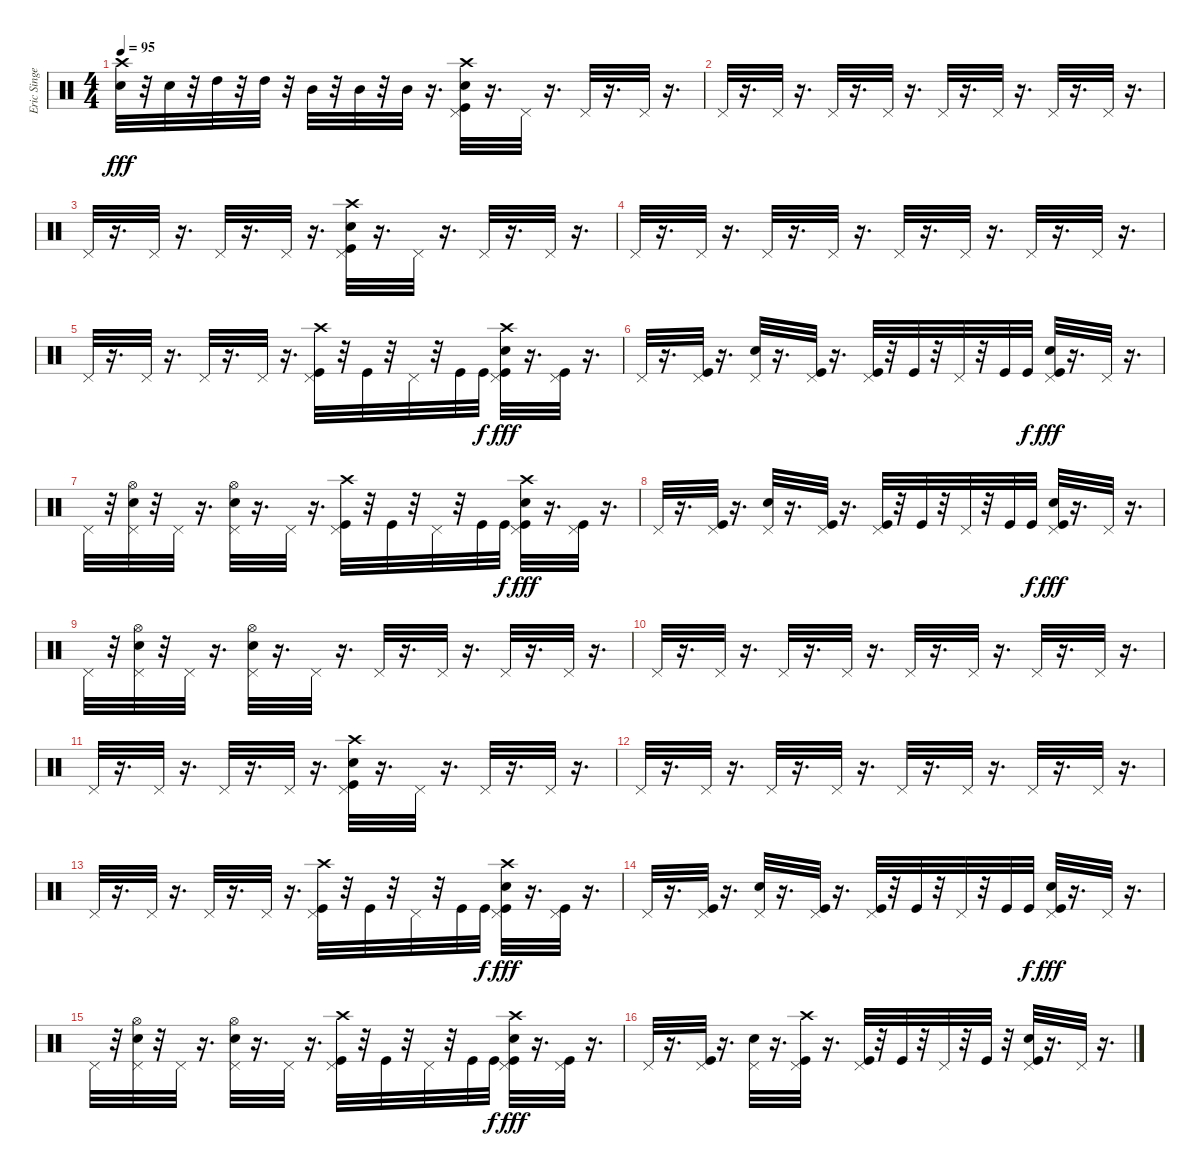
\track ("Eric Singer" "Eric Singe") {instrument percussion}
\staff {score}
\articulation defaults
\ts (4 4)
\tempo 95
\clef neutral
\ks c
("Crash high (hit)" "Snare (hit) 2").32{dy fff} r.32 "Snare (hit) 2".32 r.32 "High Tom (hit)".32 r.32 "High Tom (hit)".32 r.32 "Mid Tom (hit)".32 r.32 "Mid Tom (hit)".32 r.32 "Mid Tom (hit)".32 r.16{d} ("Pedal Hi-Hat (hit)" "Crash high (hit)" "Kick (hit)" "Snare (hit) 2").32 r.16{d} "Pedal Hi-Hat (hit)".32 r.16{d} "Pedal Hi-Hat (hit)".32 r.16{d} "Pedal Hi-Hat (hit)".32 r.16{d} |
"Pedal Hi-Hat (hit)".32 r.16{d} "Pedal Hi-Hat (hit)".32 r.16{d} "Pedal Hi-Hat (hit)".32 r.16{d} "Pedal Hi-Hat (hit)".32 r.16{d} "Pedal Hi-Hat (hit)".32 r.16{d} "Pedal Hi-Hat (hit)".32 r.16{d} "Pedal Hi-Hat (hit)".32 r.16{d} "Pedal Hi-Hat (hit)".32 r.16{d} |
"Pedal Hi-Hat (hit)".32 r.16{d} "Pedal Hi-Hat (hit)".32 r.16{d} "Pedal Hi-Hat (hit)".32 r.16{d} "Pedal Hi-Hat (hit)".32 r.16{d} ("Crash high (hit)" "Kick (hit)" "Snare (hit) 2" "Pedal Hi-Hat (hit)").32 r.16{d} "Pedal Hi-Hat (hit)".32 r.16{d} "Pedal Hi-Hat (hit)".32 r.16{d} "Pedal Hi-Hat (hit)".32 r.16{d} |
"Pedal Hi-Hat (hit)".32 r.16{d} "Pedal Hi-Hat (hit)".32 r.16{d} "Pedal Hi-Hat (hit)".32 r.16{d} "Pedal Hi-Hat (hit)".32 r.16{d} "Pedal Hi-Hat (hit)".32 r.16{d} "Pedal Hi-Hat (hit)".32 r.16{d} "Pedal Hi-Hat (hit)".32 r.16{d} "Pedal Hi-Hat (hit)".32 r.16{d} |
"Pedal Hi-Hat (hit)".32 r.16{d} "Pedal Hi-Hat (hit)".32 r.16{d} "Pedal Hi-Hat (hit)".32 r.16{d} "Pedal Hi-Hat (hit)".32 r.16{d} ("Crash high (hit)" "Pedal Hi-Hat (hit)" "Kick (hit)").32 r.32 "Kick (hit)".32 r.32 "Pedal Hi-Hat (hit)".32 r.32 "Kick (hit)".32 "Kick (hit)".32{dy f} ("Kick (hit)" "Crash high (hit)" "Snare (hit) 2" "Pedal Hi-Hat (hit)").32{dy fff} r.16{d} ("Kick (hit)" "Pedal Hi-Hat (hit)").32 r.16{d} |
"Pedal Hi-Hat (hit)".32 r.16{d} ("Kick (hit)" "Pedal Hi-Hat (hit)").32 r.16{d} ("Snare (hit) 2" "Pedal Hi-Hat (hit)").32 r.16{d} ("Kick (hit)" "Pedal Hi-Hat (hit)").32 r.16{d} ("Kick (hit)" "Pedal Hi-Hat (hit)").32 r.32 "Kick (hit)".32 r.32 "Pedal Hi-Hat (hit)".32 r.32 "Kick (hit)".32 "Kick (hit)".32{dy f} ("Kick (hit)" "Snare (hit) 2" "Pedal Hi-Hat (hit)").32{dy fff} r.16{d} "Pedal Hi-Hat (hit)".32 r.16{d} |
"Pedal Hi-Hat (hit)".32 r.32 ("Pedal Hi-Hat (hit)" "Hi-Hat (open)" "Snare (hit) 2").32 r.32 "Pedal Hi-Hat (hit)".32 r.16{d} ("Hi-Hat (open)" "Snare (hit) 2" "Pedal Hi-Hat (hit)").32 r.16{d} "Pedal Hi-Hat (hit)".32 r.16{d} ("Crash high (hit)" "Pedal Hi-Hat (hit)" "Kick (hit)").32 r.32 "Kick (hit)".32 r.32 "Pedal Hi-Hat (hit)".32 r.32 "Kick (hit)".32 "Kick (hit)".32{dy f} ("Kick (hit)" "Crash high (hit)" "Snare (hit) 2" "Pedal Hi-Hat (hit)").32{dy fff} r.16{d} ("Kick (hit)" "Pedal Hi-Hat (hit)").32 r.16{d} |
"Pedal Hi-Hat (hit)".32 r.16{d} ("Kick (hit)" "Pedal Hi-Hat (hit)").32 r.16{d} ("Snare (hit) 2" "Pedal Hi-Hat (hit)").32 r.16{d} ("Kick (hit)" "Pedal Hi-Hat (hit)").32 r.16{d} ("Kick (hit)" "Pedal Hi-Hat (hit)").32 r.32 "Kick (hit)".32 r.32 "Pedal Hi-Hat (hit)".32 r.32 "Kick (hit)".32 "Kick (hit)".32{dy f} ("Kick (hit)" "Snare (hit) 2" "Pedal Hi-Hat (hit)").32{dy fff} r.16{d} "Pedal Hi-Hat (hit)".32 r.16{d} |
"Pedal Hi-Hat (hit)".32 r.32 ("Pedal Hi-Hat (hit)" "Hi-Hat (open)" "Snare (hit) 2").32 r.32 "Pedal Hi-Hat (hit)".32 r.16{d} ("Hi-Hat (open)" "Snare (hit) 2" "Pedal Hi-Hat (hit)").32 r.16{d} "Pedal Hi-Hat (hit)".32 r.16{d} "Pedal Hi-Hat (hit)".32 r.16{d} "Pedal Hi-Hat (hit)".32 r.16{d} "Pedal Hi-Hat (hit)".32 r.16{d} "Pedal Hi-Hat (hit)".32 r.16{d} |
"Pedal Hi-Hat (hit)".32 r.16{d} "Pedal Hi-Hat (hit)".32 r.16{d} "Pedal Hi-Hat (hit)".32 r.16{d} "Pedal Hi-Hat (hit)".32 r.16{d} "Pedal Hi-Hat (hit)".32 r.16{d} "Pedal Hi-Hat (hit)".32 r.16{d} "Pedal Hi-Hat (hit)".32 r.16{d} "Pedal Hi-Hat (hit)".32 r.16{d} |
"Pedal Hi-Hat (hit)".32 r.16{d} "Pedal Hi-Hat (hit)".32 r.16{d} "Pedal Hi-Hat (hit)".32 r.16{d} "Pedal Hi-Hat (hit)".32 r.16{d} ("Crash high (hit)" "Kick (hit)" "Snare (hit) 2" "Pedal Hi-Hat (hit)").32 r.16{d} "Pedal Hi-Hat (hit)".32 r.16{d} "Pedal Hi-Hat (hit)".32 r.16{d} "Pedal Hi-Hat (hit)".32 r.16{d} |
"Pedal Hi-Hat (hit)".32 r.16{d} "Pedal Hi-Hat (hit)".32 r.16{d} "Pedal Hi-Hat (hit)".32 r.16{d} "Pedal Hi-Hat (hit)".32 r.16{d} "Pedal Hi-Hat (hit)".32 r.16{d} "Pedal Hi-Hat (hit)".32 r.16{d} "Pedal Hi-Hat (hit)".32 r.16{d} "Pedal Hi-Hat (hit)".32 r.16{d} |
"Pedal Hi-Hat (hit)".32 r.16{d} "Pedal Hi-Hat (hit)".32 r.16{d} "Pedal Hi-Hat (hit)".32 r.16{d} "Pedal Hi-Hat (hit)".32 r.16{d} ("Crash high (hit)" "Pedal Hi-Hat (hit)" "Kick (hit)").32 r.32 "Kick (hit)".32 r.32 "Pedal Hi-Hat (hit)".32 r.32 "Kick (hit)".32 "Kick (hit)".32{dy f} ("Kick (hit)" "Crash high (hit)" "Snare (hit) 2" "Pedal Hi-Hat (hit)").32{dy fff} r.16{d} ("Kick (hit)" "Pedal Hi-Hat (hit)").32 r.16{d} |
"Pedal Hi-Hat (hit)".32 r.16{d} ("Kick (hit)" "Pedal Hi-Hat (hit)").32 r.16{d} ("Snare (hit) 2" "Pedal Hi-Hat (hit)").32 r.16{d} ("Kick (hit)" "Pedal Hi-Hat (hit)").32 r.16{d} ("Kick (hit)" "Pedal Hi-Hat (hit)").32 r.32 "Kick (hit)".32 r.32 "Pedal Hi-Hat (hit)".32 r.32 "Kick (hit)".32 "Kick (hit)".32{dy f} ("Kick (hit)" "Snare (hit) 2" "Pedal Hi-Hat (hit)").32{dy fff} r.16{d} "Pedal Hi-Hat (hit)".32 r.16{d} |
"Pedal Hi-Hat (hit)".32 r.32 ("Pedal Hi-Hat (hit)" "Hi-Hat (open)" "Snare (hit) 2").32 r.32 "Pedal Hi-Hat (hit)".32 r.16{d} ("Hi-Hat (open)" "Snare (hit) 2" "Pedal Hi-Hat (hit)").32 r.16{d} "Pedal Hi-Hat (hit)".32 r.16{d} ("Crash high (hit)" "Pedal Hi-Hat (hit)" "Kick (hit)").32 r.32 "Kick (hit)".32 r.32 "Pedal Hi-Hat (hit)".32 r.32 "Kick (hit)".32 "Kick (hit)".32{dy f} ("Kick (hit)" "Crash high (hit)" "Snare (hit) 2" "Pedal Hi-Hat (hit)").32{dy fff} r.16{d} ("Kick (hit)" "Pedal Hi-Hat (hit)").32 r.16{d} |
"Pedal Hi-Hat (hit)".32 r.16{d} ("Kick (hit)" "Pedal Hi-Hat (hit)").32 r.16{d} ("Snare (hit) 2" "Pedal Hi-Hat (hit)").32 r.16{d} ("Crash high (hit)" "Kick (hit)" "Pedal Hi-Hat (hit)").32 r.16{d} ("Kick (hit)" "Pedal Hi-Hat (hit)").32 r.32 "Kick (hit)".32 r.32 "Pedal Hi-Hat (hit)".32 r.32 "Kick (hit)".32 r.32 ("Kick (hit)" "Snare (hit) 2" "Pedal Hi-Hat (hit)").32 r.16{d} "Pedal Hi-Hat (hit)".32 r.16{d}
